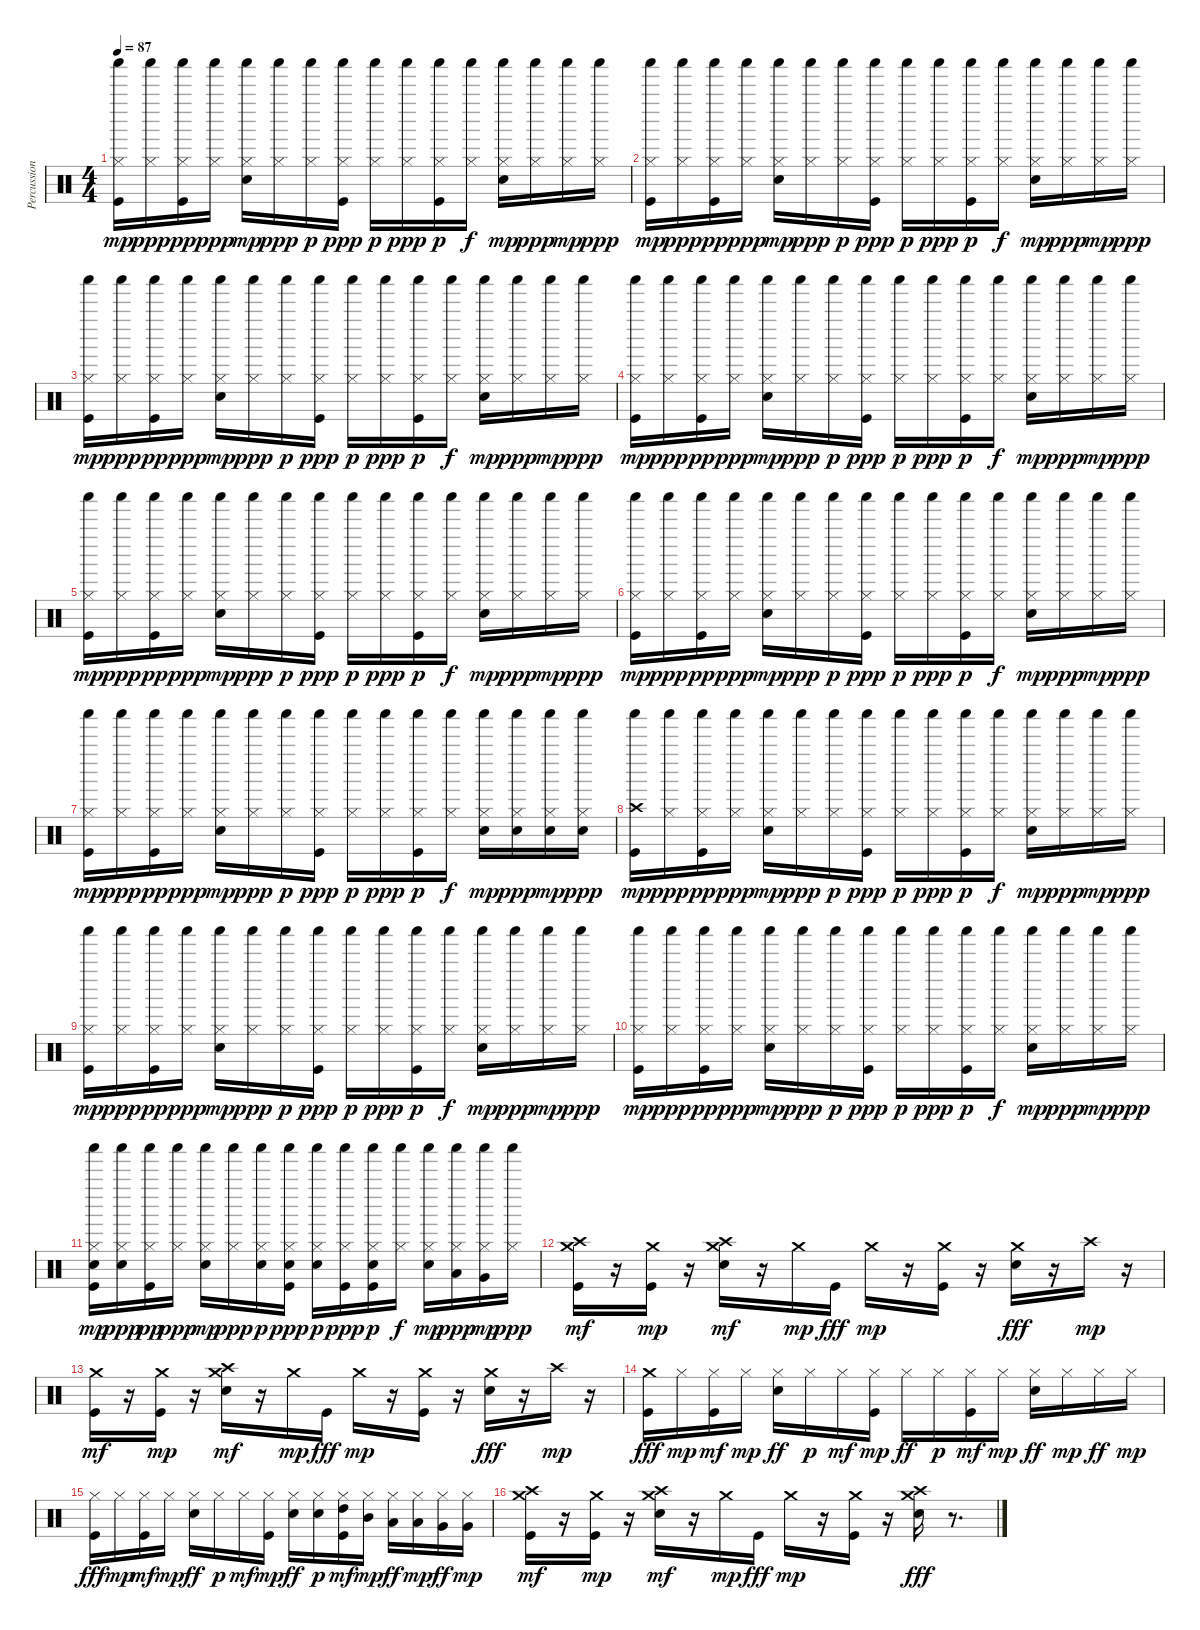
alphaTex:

\track ("Percussioni" "Percussion") {instrument percussion}
\staff {score}
\articulation defaults
\ts (4 4)
\tempo 87
\clef neutral
\ks c
("Kick (hit)" "Hi-Hat (closed)" "Shaker (hit)").16{dy mp} ("Hi-Hat (closed)" "Shaker (hit)").16{dy ppp} ("Kick (hit)" "Hi-Hat (closed)" "Shaker (hit)").16{dy pp} ("Hi-Hat (closed)" "Shaker (hit)").16{dy ppp} ("Electric Snare (hit)" "Hi-Hat (closed)" "Shaker (hit)").16{dy mp} ("Hi-Hat (closed)" "Shaker (hit)").16{dy ppp} ("Hi-Hat (closed)" "Shaker (hit)").16{dy p} ("Kick (hit)" "Hi-Hat (closed)" "Shaker (hit)").16{dy ppp} ("Hi-Hat (closed)" "Shaker (hit)").16{dy p} ("Hi-Hat (closed)" "Shaker (hit)").16{dy ppp} ("Kick (hit)" "Hi-Hat (closed)" "Shaker (hit)").16{dy p} ("Hi-Hat (closed)" "Shaker (hit)").16{dy f} ("Electric Snare (hit)" "Hi-Hat (closed)" "Shaker (hit)").16{dy mp} ("Hi-Hat (closed)" "Shaker (hit)").16{dy ppp} ("Hi-Hat (closed)" "Shaker (hit)").16{dy mp} ("Hi-Hat (closed)" "Shaker (hit)").16{dy ppp} |
("Kick (hit)" "Hi-Hat (closed)" "Shaker (hit)").16{dy mp} ("Hi-Hat (closed)" "Shaker (hit)").16{dy ppp} ("Kick (hit)" "Hi-Hat (closed)" "Shaker (hit)").16{dy pp} ("Hi-Hat (closed)" "Shaker (hit)").16{dy ppp} ("Electric Snare (hit)" "Hi-Hat (closed)" "Shaker (hit)").16{dy mp} ("Hi-Hat (closed)" "Shaker (hit)").16{dy ppp} ("Hi-Hat (closed)" "Shaker (hit)").16{dy p} ("Kick (hit)" "Hi-Hat (closed)" "Shaker (hit)").16{dy ppp} ("Hi-Hat (closed)" "Shaker (hit)").16{dy p} ("Hi-Hat (closed)" "Shaker (hit)").16{dy ppp} ("Kick (hit)" "Hi-Hat (closed)" "Shaker (hit)").16{dy p} ("Hi-Hat (closed)" "Shaker (hit)").16{dy f} ("Electric Snare (hit)" "Hi-Hat (closed)" "Shaker (hit)").16{dy mp} ("Hi-Hat (closed)" "Shaker (hit)").16{dy ppp} ("Hi-Hat (closed)" "Shaker (hit)").16{dy mp} ("Hi-Hat (closed)" "Shaker (hit)").16{dy ppp} |
("Kick (hit)" "Hi-Hat (closed)" "Shaker (hit)").16{dy mp} ("Hi-Hat (closed)" "Shaker (hit)").16{dy ppp} ("Kick (hit)" "Hi-Hat (closed)" "Shaker (hit)").16{dy pp} ("Hi-Hat (closed)" "Shaker (hit)").16{dy ppp} ("Electric Snare (hit)" "Hi-Hat (closed)" "Shaker (hit)").16{dy mp} ("Hi-Hat (closed)" "Shaker (hit)").16{dy ppp} ("Hi-Hat (closed)" "Shaker (hit)").16{dy p} ("Kick (hit)" "Hi-Hat (closed)" "Shaker (hit)").16{dy ppp} ("Hi-Hat (closed)" "Shaker (hit)").16{dy p} ("Hi-Hat (closed)" "Shaker (hit)").16{dy ppp} ("Kick (hit)" "Hi-Hat (closed)" "Shaker (hit)").16{dy p} ("Hi-Hat (closed)" "Shaker (hit)").16{dy f} ("Electric Snare (hit)" "Hi-Hat (closed)" "Shaker (hit)").16{dy mp} ("Hi-Hat (closed)" "Shaker (hit)").16{dy ppp} ("Hi-Hat (closed)" "Shaker (hit)").16{dy mp} ("Hi-Hat (closed)" "Shaker (hit)").16{dy ppp} |
("Kick (hit)" "Hi-Hat (closed)" "Shaker (hit)").16{dy mp} ("Hi-Hat (closed)" "Shaker (hit)").16{dy ppp} ("Kick (hit)" "Hi-Hat (closed)" "Shaker (hit)").16{dy pp} ("Hi-Hat (closed)" "Shaker (hit)").16{dy ppp} ("Electric Snare (hit)" "Hi-Hat (closed)" "Shaker (hit)").16{dy mp} ("Hi-Hat (closed)" "Shaker (hit)").16{dy ppp} ("Hi-Hat (closed)" "Shaker (hit)").16{dy p} ("Kick (hit)" "Hi-Hat (closed)" "Shaker (hit)").16{dy ppp} ("Hi-Hat (closed)" "Shaker (hit)").16{dy p} ("Hi-Hat (closed)" "Shaker (hit)").16{dy ppp} ("Kick (hit)" "Hi-Hat (closed)" "Shaker (hit)").16{dy p} ("Hi-Hat (closed)" "Shaker (hit)").16{dy f} ("Electric Snare (hit)" "Hi-Hat (closed)" "Shaker (hit)").16{dy mp} ("Hi-Hat (closed)" "Shaker (hit)").16{dy ppp} ("Hi-Hat (closed)" "Shaker (hit)").16{dy mp} ("Hi-Hat (closed)" "Shaker (hit)").16{dy ppp} |
("Kick (hit)" "Hi-Hat (closed)" "Shaker (hit)").16{dy mp} ("Hi-Hat (closed)" "Shaker (hit)").16{dy ppp} ("Kick (hit)" "Hi-Hat (closed)" "Shaker (hit)").16{dy pp} ("Hi-Hat (closed)" "Shaker (hit)").16{dy ppp} ("Electric Snare (hit)" "Hi-Hat (closed)" "Shaker (hit)").16{dy mp} ("Hi-Hat (closed)" "Shaker (hit)").16{dy ppp} ("Hi-Hat (closed)" "Shaker (hit)").16{dy p} ("Kick (hit)" "Hi-Hat (closed)" "Shaker (hit)").16{dy ppp} ("Hi-Hat (closed)" "Shaker (hit)").16{dy p} ("Hi-Hat (closed)" "Shaker (hit)").16{dy ppp} ("Kick (hit)" "Hi-Hat (closed)" "Shaker (hit)").16{dy p} ("Hi-Hat (closed)" "Shaker (hit)").16{dy f} ("Electric Snare (hit)" "Hi-Hat (closed)" "Shaker (hit)").16{dy mp} ("Hi-Hat (closed)" "Shaker (hit)").16{dy ppp} ("Hi-Hat (closed)" "Shaker (hit)").16{dy mp} ("Hi-Hat (closed)" "Shaker (hit)").16{dy ppp} |
("Kick (hit)" "Hi-Hat (closed)" "Shaker (hit)").16{dy mp} ("Hi-Hat (closed)" "Shaker (hit)").16{dy ppp} ("Kick (hit)" "Hi-Hat (closed)" "Shaker (hit)").16{dy pp} ("Hi-Hat (closed)" "Shaker (hit)").16{dy ppp} ("Electric Snare (hit)" "Hi-Hat (closed)" "Shaker (hit)").16{dy mp} ("Hi-Hat (closed)" "Shaker (hit)").16{dy ppp} ("Hi-Hat (closed)" "Shaker (hit)").16{dy p} ("Kick (hit)" "Hi-Hat (closed)" "Shaker (hit)").16{dy ppp} ("Hi-Hat (closed)" "Shaker (hit)").16{dy p} ("Hi-Hat (closed)" "Shaker (hit)").16{dy ppp} ("Kick (hit)" "Hi-Hat (closed)" "Shaker (hit)").16{dy p} ("Hi-Hat (closed)" "Shaker (hit)").16{dy f} ("Electric Snare (hit)" "Hi-Hat (closed)" "Shaker (hit)").16{dy mp} ("Hi-Hat (closed)" "Shaker (hit)").16{dy ppp} ("Hi-Hat (closed)" "Shaker (hit)").16{dy mp} ("Hi-Hat (closed)" "Shaker (hit)").16{dy ppp} |
("Kick (hit)" "Hi-Hat (closed)" "Shaker (hit)").16{dy mp} ("Hi-Hat (closed)" "Shaker (hit)").16{dy ppp} ("Kick (hit)" "Hi-Hat (closed)" "Shaker (hit)").16{dy pp} ("Hi-Hat (closed)" "Shaker (hit)").16{dy ppp} ("Electric Snare (hit)" "Hi-Hat (closed)" "Shaker (hit)").16{dy mp} ("Hi-Hat (closed)" "Shaker (hit)").16{dy ppp} ("Hi-Hat (closed)" "Shaker (hit)").16{dy p} ("Kick (hit)" "Hi-Hat (closed)" "Shaker (hit)").16{dy ppp} ("Hi-Hat (closed)" "Shaker (hit)").16{dy p} ("Hi-Hat (closed)" "Shaker (hit)").16{dy ppp} ("Kick (hit)" "Hi-Hat (closed)" "Shaker (hit)").16{dy p} ("Hi-Hat (closed)" "Shaker (hit)").16{dy f} ("Electric Snare (hit)" "Hi-Hat (closed)" "Shaker (hit)").16{dy mp} ("Snare (hit) 2" "Hi-Hat (closed)" "Shaker (hit)").16{dy ppp} ("Electric Snare (hit)" "Hi-Hat (closed)" "Shaker (hit)").16{dy mp} ("Electric Snare (hit)" "Hi-Hat (closed)" "Shaker (hit)").16{dy ppp} |
("Kick (hit)" "Crash high (hit)" "Shaker (hit)").16{dy mp} ("Hi-Hat (closed)" "Shaker (hit)").16{dy ppp} ("Kick (hit)" "Hi-Hat (closed)" "Shaker (hit)").16{dy pp} ("Hi-Hat (closed)" "Shaker (hit)").16{dy ppp} ("Electric Snare (hit)" "Hi-Hat (closed)" "Shaker (hit)").16{dy mp} ("Hi-Hat (closed)" "Shaker (hit)").16{dy ppp} ("Hi-Hat (closed)" "Shaker (hit)").16{dy p} ("Kick (hit)" "Hi-Hat (closed)" "Shaker (hit)").16{dy ppp} ("Hi-Hat (closed)" "Shaker (hit)").16{dy p} ("Hi-Hat (closed)" "Shaker (hit)").16{dy ppp} ("Kick (hit)" "Hi-Hat (closed)" "Shaker (hit)").16{dy p} ("Hi-Hat (closed)" "Shaker (hit)").16{dy f} ("Electric Snare (hit)" "Hi-Hat (closed)" "Shaker (hit)").16{dy mp} ("Hi-Hat (closed)" "Shaker (hit)").16{dy ppp} ("Hi-Hat (closed)" "Shaker (hit)").16{dy mp} ("Hi-Hat (closed)" "Shaker (hit)").16{dy ppp} |
("Kick (hit)" "Hi-Hat (closed)" "Shaker (hit)").16{dy mp} ("Hi-Hat (closed)" "Shaker (hit)").16{dy ppp} ("Kick (hit)" "Hi-Hat (closed)" "Shaker (hit)").16{dy pp} ("Hi-Hat (closed)" "Shaker (hit)").16{dy ppp} ("Electric Snare (hit)" "Hi-Hat (closed)" "Shaker (hit)").16{dy mp} ("Hi-Hat (closed)" "Shaker (hit)").16{dy ppp} ("Hi-Hat (closed)" "Shaker (hit)").16{dy p} ("Kick (hit)" "Hi-Hat (closed)" "Shaker (hit)").16{dy ppp} ("Hi-Hat (closed)" "Shaker (hit)").16{dy p} ("Hi-Hat (closed)" "Shaker (hit)").16{dy ppp} ("Kick (hit)" "Hi-Hat (closed)" "Shaker (hit)").16{dy p} ("Hi-Hat (closed)" "Shaker (hit)").16{dy f} ("Electric Snare (hit)" "Hi-Hat (closed)" "Shaker (hit)").16{dy mp} ("Hi-Hat (closed)" "Shaker (hit)").16{dy ppp} ("Hi-Hat (closed)" "Shaker (hit)").16{dy mp} ("Hi-Hat (closed)" "Shaker (hit)").16{dy ppp} |
("Kick (hit)" "Hi-Hat (closed)" "Shaker (hit)").16{dy mp} ("Hi-Hat (closed)" "Shaker (hit)").16{dy ppp} ("Kick (hit)" "Hi-Hat (closed)" "Shaker (hit)").16{dy pp} ("Hi-Hat (closed)" "Shaker (hit)").16{dy ppp} ("Electric Snare (hit)" "Hi-Hat (closed)" "Shaker (hit)").16{dy mp} ("Hi-Hat (closed)" "Shaker (hit)").16{dy ppp} ("Hi-Hat (closed)" "Shaker (hit)").16{dy p} ("Kick (hit)" "Hi-Hat (closed)" "Shaker (hit)").16{dy ppp} ("Hi-Hat (closed)" "Shaker (hit)").16{dy p} ("Hi-Hat (closed)" "Shaker (hit)").16{dy ppp} ("Kick (hit)" "Hi-Hat (closed)" "Shaker (hit)").16{dy p} ("Hi-Hat (closed)" "Shaker (hit)").16{dy f} ("Electric Snare (hit)" "Hi-Hat (closed)" "Shaker (hit)").16{dy mp} ("Hi-Hat (closed)" "Shaker (hit)").16{dy ppp} ("Hi-Hat (closed)" "Shaker (hit)").16{dy mp} ("Hi-Hat (closed)" "Shaker (hit)").16{dy ppp} |
("Kick (hit)" "Electric Snare (hit)" "Hi-Hat (closed)" "Shaker (hit)").16{dy mp} ("Electric Snare (hit)" "Hi-Hat (closed)" "Shaker (hit)").16{dy ppp} ("Kick (hit)" "Hi-Hat (closed)" "Shaker (hit)").16{dy pp} ("Hi-Hat (closed)" "Shaker (hit)").16{dy ppp} ("Electric Snare (hit)" "Hi-Hat (closed)" "Shaker (hit)").16{dy mp} ("Hi-Hat (closed)" "Shaker (hit)").16{dy ppp} ("Electric Snare (hit)" "Hi-Hat (closed)" "Shaker (hit)").16{dy p} ("Kick (hit)" "Electric Snare (hit)" "Hi-Hat (closed)" "Shaker (hit)").16{dy ppp} ("Electric Snare (hit)" "Hi-Hat (closed)" "Shaker (hit)").16{dy p} ("Kick (hit)" "Hi-Hat (closed)" "Shaker (hit)").16{dy ppp} ("Kick (hit)" "Electric Snare (hit)" "Hi-Hat (closed)" "Shaker (hit)").16{dy p} ("Hi-Hat (closed)" "Shaker (hit)").16{dy f} ("Electric Snare (hit)" "Hi-Hat (closed)" "Shaker (hit)").16{dy mp} ("Hi-Hat (closed)" "Low Tom (hit)" "Shaker (hit)").16{dy ppp} ("Hi-Hat (closed)" "Very Low Tom (hit)" "Shaker (hit)").16{dy mp} ("Hi-Hat (closed)" "Shaker (hit)").16{dy ppp} |
("Kick (hit)" "Crash high (hit)" "Crash medium (hit)").16{dy mf} r.16 ("Kick (hit)" "Crash medium (hit)").16{dy mp} r.16 ("Electric Snare (hit)" "Crash high (hit)" "Crash medium (hit)").16{dy mf} r.16 "Crash medium (hit)".16{dy mp} "Kick (hit)".16{dy fff} "Crash medium (hit)".16{dy mp} r.16 ("Kick (hit)" "Crash medium (hit)").16 r.16 ("Electric Snare (hit)" "Crash medium (hit)").16{dy fff} r.16 "Crash high (hit)".16{dy mp} r.16 |
("Kick (hit)" "Crash medium (hit)").16{dy mf} r.16 ("Kick (hit)" "Crash medium (hit)").16{dy mp} r.16 ("Electric Snare (hit)" "Crash high (hit)" "Crash medium (hit)").16{dy mf} r.16 "Crash medium (hit)".16{dy mp} "Kick (hit)".16{dy fff} "Crash medium (hit)".16{dy mp} r.16 ("Kick (hit)" "Crash medium (hit)").16 r.16 ("Electric Snare (hit)" "Crash medium (hit)").16{dy fff} r.16 "Crash high (hit)".16{dy mp} r.16 |
("Kick (hit)" "Crash medium (hit)").16{dy fff} "Hi-Hat (closed)".16{dy mp} ("Kick (hit)" "Hi-Hat (closed)").16{dy mf} "Hi-Hat (closed)".16{dy mp} ("Electric Snare (hit)" "Hi-Hat (closed)").16{dy ff} "Hi-Hat (closed)".16{dy p} "Hi-Hat (closed)".16{dy mf} ("Kick (hit)" "Hi-Hat (closed)").16{dy mp} "Hi-Hat (closed)".16{dy ff} "Hi-Hat (closed)".16{dy p} ("Kick (hit)" "Hi-Hat (closed)").16{dy mf} "Hi-Hat (closed)".16{dy mp} ("Electric Snare (hit)" "Hi-Hat (closed)").16{dy ff} "Hi-Hat (closed)".16{dy mp} "Hi-Hat (closed)".16{dy ff} "Hi-Hat (closed)".16{dy mp} |
("Kick (hit)" "Hi-Hat (closed)").16{dy fff} "Hi-Hat (closed)".16{dy mp} ("Kick (hit)" "Hi-Hat (closed)").16{dy mf} "Hi-Hat (closed)".16{dy mp} ("Electric Snare (hit)" "Hi-Hat (closed)").16{dy ff} "Hi-Hat (closed)".16{dy p} "Hi-Hat (closed)".16{dy mf} ("Kick (hit)" "Hi-Hat (closed)").16{dy mp} ("Electric Snare (hit)" "Hi-Hat (closed)").16{dy ff} ("Electric Snare (hit)" "Hi-Hat (closed)").16{dy p} ("Kick (hit)" "Hi-Hat (closed)" "High Tom (hit)").16{dy mf} ("Hi-Hat (closed)" "Mid Tom (hit)").16{dy mp} ("Hi-Hat (closed)" "Low Tom (hit)").16{dy ff} ("Hi-Hat (closed)" "Low Tom (hit)").16{dy mp} ("Hi-Hat (closed)" "Very Low Tom (hit)").16{dy ff} ("Hi-Hat (closed)" "Very Low Tom (hit)").16{dy mp} |
("Kick (hit)" "Crash high (hit)" "Crash medium (hit)").16{dy mf} r.16 ("Kick (hit)" "Crash medium (hit)").16{dy mp} r.16 ("Electric Snare (hit)" "Crash high (hit)" "Crash medium (hit)").16{dy mf} r.16 "Crash medium (hit)".16{dy mp} "Kick (hit)".16{dy fff} "Crash medium (hit)".16{dy mp} r.16 ("Kick (hit)" "Crash medium (hit)").16 r.16 ("Electric Snare (hit)" "Crash high (hit)" "Crash medium (hit)").16{dy fff} r.8{d}
